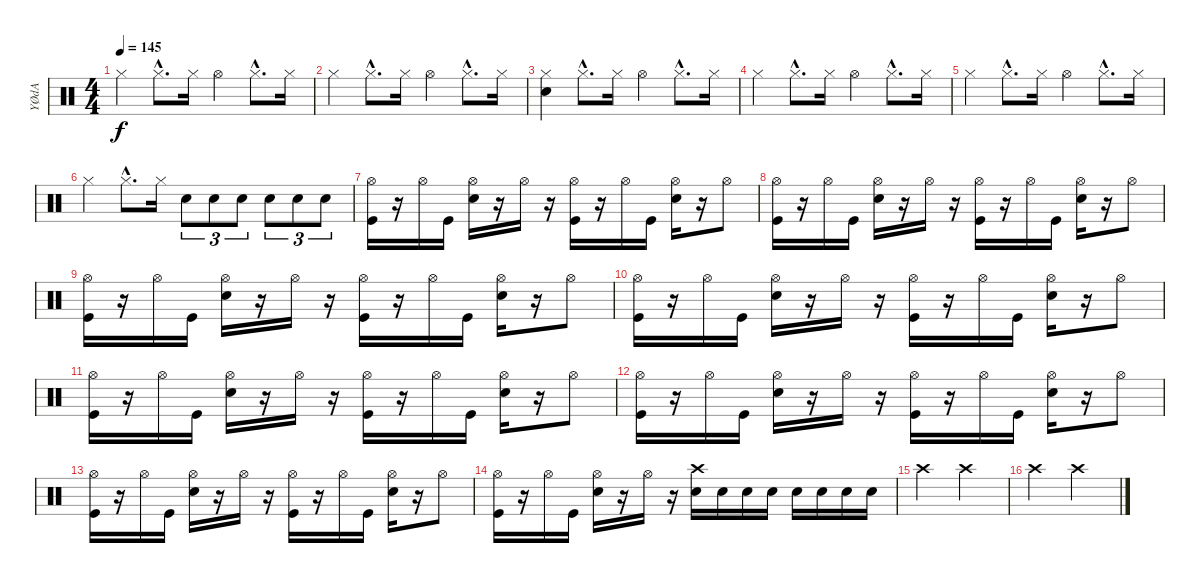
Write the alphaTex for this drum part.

\track ("YØdA" "YØdA") {instrument percussion}
\staff {score}
\articulation defaults
\ts (4 4)
\tempo 145
\clef neutral
\ks c "Hi-Hat (closed)".4{dy f} "Hi-Hat (closed)"{hac}.8{d} "Hi-Hat (closed)".16 "Hi-Hat (open)".4 "Hi-Hat (closed)"{hac}.8{d} "Hi-Hat (closed)".16
|
"Hi-Hat (closed)".4 "Hi-Hat (closed)"{hac}.8{d} "Hi-Hat (closed)".16 "Hi-Hat (open)".4 "Hi-Hat (closed)"{hac}.8{d} "Hi-Hat (closed)".16 |
("Hi-Hat (closed)" "Electric Snare (hit)").4 "Hi-Hat (closed)"{hac}.8{d} "Hi-Hat (closed)".16 "Hi-Hat (open)".4 "Hi-Hat (closed)"{hac}.8{d} "Hi-Hat (closed)".16 |
"Hi-Hat (closed)".4 "Hi-Hat (closed)"{hac}.8{d} "Hi-Hat (closed)".16 "Hi-Hat (open)".4 "Hi-Hat (closed)"{hac}.8{d} "Hi-Hat (closed)".16 |
"Hi-Hat (closed)".4 "Hi-Hat (closed)"{hac}.8{d} "Hi-Hat (closed)".16 "Hi-Hat (open)".4 "Hi-Hat (closed)"{hac}.8{d} "Hi-Hat (closed)".16 |
"Hi-Hat (closed)".4 "Hi-Hat (closed)"{hac}.8{d} "Hi-Hat (closed)".16 "Electric Snare (hit)".8{tu (3 2)} "Electric Snare (hit)".8{tu (3 2)} "Electric Snare (hit)".8{tu (3 2)} "Electric Snare (hit)".8{tu (3 2)} "Electric Snare (hit)".8{tu (3 2)} "Electric Snare (hit)".8{tu (3 2)} |
("Hi-Hat (open)" "Kick (hit)").16 r.16 "Hi-Hat (open)".16 "Kick (hit)".16 ("Hi-Hat (open)" "Electric Snare (hit)").16 r.16 "Hi-Hat (open)".16 r.16 ("Hi-Hat (open)" "Kick (hit)").16 r.16 "Hi-Hat (open)".16 "Kick (hit)".16 ("Hi-Hat (open)" "Electric Snare (hit)").16 r.16 "Hi-Hat (open)".8 |
("Hi-Hat (open)" "Kick (hit)").16 r.16 "Hi-Hat (open)".16 "Kick (hit)".16 ("Hi-Hat (open)" "Electric Snare (hit)").16 r.16 "Hi-Hat (open)".16 r.16 ("Hi-Hat (open)" "Kick (hit)").16 r.16 "Hi-Hat (open)".16 "Kick (hit)".16 ("Hi-Hat (open)" "Electric Snare (hit)").16 r.16 "Hi-Hat (open)".8 |
("Hi-Hat (open)" "Kick (hit)").16 r.16 "Hi-Hat (open)".16 "Kick (hit)".16 ("Hi-Hat (open)" "Electric Snare (hit)").16 r.16 "Hi-Hat (open)".16 r.16 ("Hi-Hat (open)" "Kick (hit)").16 r.16 "Hi-Hat (open)".16 "Kick (hit)".16 ("Hi-Hat (open)" "Electric Snare (hit)").16 r.16 "Hi-Hat (open)".8 |
("Hi-Hat (open)" "Kick (hit)").16 r.16 "Hi-Hat (open)".16 "Kick (hit)".16 ("Hi-Hat (open)" "Electric Snare (hit)").16 r.16 "Hi-Hat (open)".16 r.16 ("Hi-Hat (open)" "Kick (hit)").16 r.16 "Hi-Hat (open)".16 "Kick (hit)".16 ("Hi-Hat (open)" "Electric Snare (hit)").16 r.16 "Hi-Hat (open)".8 |
("Hi-Hat (open)" "Kick (hit)").16 r.16 "Hi-Hat (open)".16 "Kick (hit)".16 ("Hi-Hat (open)" "Electric Snare (hit)").16 r.16 "Hi-Hat (open)".16 r.16 ("Hi-Hat (open)" "Kick (hit)").16 r.16 "Hi-Hat (open)".16 "Kick (hit)".16 ("Hi-Hat (open)" "Electric Snare (hit)").16 r.16 "Hi-Hat (open)".8 |
("Hi-Hat (open)" "Kick (hit)").16 r.16 "Hi-Hat (open)".16 "Kick (hit)".16 ("Hi-Hat (open)" "Electric Snare (hit)").16 r.16 "Hi-Hat (open)".16 r.16 ("Hi-Hat (open)" "Kick (hit)").16 r.16 "Hi-Hat (open)".16 "Kick (hit)".16 ("Hi-Hat (open)" "Electric Snare (hit)").16 r.16 "Hi-Hat (open)".8 |
("Hi-Hat (open)" "Kick (hit)").16 r.16 "Hi-Hat (open)".16 "Kick (hit)".16 ("Hi-Hat (open)" "Electric Snare (hit)").16 r.16 "Hi-Hat (open)".16 r.16 ("Hi-Hat (open)" "Kick (hit)").16 r.16 "Hi-Hat (open)".16 "Kick (hit)".16 ("Hi-Hat (open)" "Electric Snare (hit)").16 r.16 "Hi-Hat (open)".8 |
("Hi-Hat (open)" "Kick (hit)").16 r.16 "Hi-Hat (open)".16 "Kick (hit)".16 ("Hi-Hat (open)" "Electric Snare (hit)").16 r.16 "Hi-Hat (open)".16 r.16 ("Crash high (hit)" "Electric Snare (hit)").16 "Electric Snare (hit)".16 "Electric Snare (hit)".16 "Electric Snare (hit)".16 "Electric Snare (hit)".16 "Electric Snare (hit)".16 "Electric Snare (hit)".16 "Electric Snare (hit)".16 |
"Crash high (hit)".2 "Crash high (hit)".2 |
"Crash high (hit)".2 "Crash high (hit)".2
